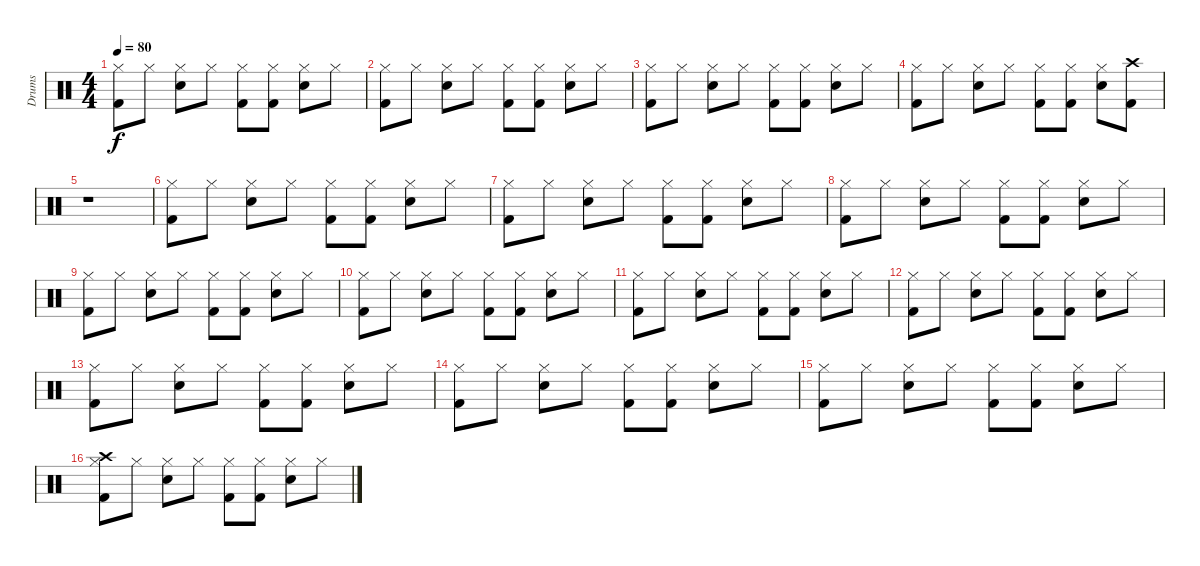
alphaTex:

\track ("Drums" "Drums") {instrument percussion}
\staff {score}
\articulation defaults
\ts (4 4)
\tempo 80
\clef neutral
\ks c
("Hi-Hat (closed)" "Kick (hit) 2").8{dy f} "Hi-Hat (closed)".8 ("Hi-Hat (closed)" "Electric Snare (hit)").8 "Hi-Hat (closed)".8 ("Hi-Hat (closed)" "Kick (hit) 2").8 ("Hi-Hat (closed)" "Kick (hit) 2").8 ("Hi-Hat (closed)" "Electric Snare (hit)").8 "Hi-Hat (closed)".8 |
("Hi-Hat (closed)" "Kick (hit) 2").8 "Hi-Hat (closed)".8 ("Hi-Hat (closed)" "Electric Snare (hit)").8 "Hi-Hat (closed)".8 ("Hi-Hat (closed)" "Kick (hit) 2").8 ("Hi-Hat (closed)" "Kick (hit) 2").8 ("Hi-Hat (closed)" "Electric Snare (hit)").8 "Hi-Hat (closed)".8 |
("Hi-Hat (closed)" "Kick (hit) 2").8 "Hi-Hat (closed)".8 ("Hi-Hat (closed)" "Electric Snare (hit)").8 "Hi-Hat (closed)".8 ("Hi-Hat (closed)" "Kick (hit) 2").8 ("Hi-Hat (closed)" "Kick (hit) 2").8 ("Hi-Hat (closed)" "Electric Snare (hit)").8 "Hi-Hat (closed)".8 |
("Hi-Hat (closed)" "Kick (hit) 2").8 "Hi-Hat (closed)".8 ("Hi-Hat (closed)" "Electric Snare (hit)").8 "Hi-Hat (closed)".8 ("Hi-Hat (closed)" "Kick (hit) 2").8 ("Hi-Hat (closed)" "Kick (hit) 2").8 ("Hi-Hat (closed)" "Electric Snare (hit)").8 ("Crash high (hit)" "Kick (hit) 2").8 |
r.1 |
("Hi-Hat (closed)" "Kick (hit) 2").8 "Hi-Hat (closed)".8 ("Hi-Hat (closed)" "Electric Snare (hit)").8 "Hi-Hat (closed)".8 ("Hi-Hat (closed)" "Kick (hit) 2").8 ("Hi-Hat (closed)" "Kick (hit) 2").8 ("Hi-Hat (closed)" "Electric Snare (hit)").8 "Hi-Hat (closed)".8 |
("Hi-Hat (closed)" "Kick (hit) 2").8 "Hi-Hat (closed)".8 ("Hi-Hat (closed)" "Electric Snare (hit)").8 "Hi-Hat (closed)".8 ("Hi-Hat (closed)" "Kick (hit) 2").8 ("Hi-Hat (closed)" "Kick (hit) 2").8 ("Hi-Hat (closed)" "Electric Snare (hit)").8 "Hi-Hat (closed)".8 |
("Hi-Hat (closed)" "Kick (hit) 2").8 "Hi-Hat (closed)".8 ("Hi-Hat (closed)" "Electric Snare (hit)").8 "Hi-Hat (closed)".8 ("Hi-Hat (closed)" "Kick (hit) 2").8 ("Hi-Hat (closed)" "Kick (hit) 2").8 ("Hi-Hat (closed)" "Electric Snare (hit)").8 "Hi-Hat (closed)".8 |
("Hi-Hat (closed)" "Kick (hit) 2").8 "Hi-Hat (closed)".8 ("Hi-Hat (closed)" "Electric Snare (hit)").8 "Hi-Hat (closed)".8 ("Hi-Hat (closed)" "Kick (hit) 2").8 ("Hi-Hat (closed)" "Kick (hit) 2").8 ("Hi-Hat (closed)" "Electric Snare (hit)").8 "Hi-Hat (closed)".8 |
("Hi-Hat (closed)" "Kick (hit) 2").8 "Hi-Hat (closed)".8 ("Hi-Hat (closed)" "Electric Snare (hit)").8 "Hi-Hat (closed)".8 ("Hi-Hat (closed)" "Kick (hit) 2").8 ("Hi-Hat (closed)" "Kick (hit) 2").8 ("Hi-Hat (closed)" "Electric Snare (hit)").8 "Hi-Hat (closed)".8 |
("Hi-Hat (closed)" "Kick (hit) 2").8 "Hi-Hat (closed)".8 ("Hi-Hat (closed)" "Electric Snare (hit)").8 "Hi-Hat (closed)".8 ("Hi-Hat (closed)" "Kick (hit) 2").8 ("Hi-Hat (closed)" "Kick (hit) 2").8 ("Hi-Hat (closed)" "Electric Snare (hit)").8 "Hi-Hat (closed)".8 |
("Hi-Hat (closed)" "Kick (hit) 2").8 "Hi-Hat (closed)".8 ("Hi-Hat (closed)" "Electric Snare (hit)").8 "Hi-Hat (closed)".8 ("Hi-Hat (closed)" "Kick (hit) 2").8 ("Hi-Hat (closed)" "Kick (hit) 2").8 ("Hi-Hat (closed)" "Electric Snare (hit)").8 "Hi-Hat (closed)".8 |
("Hi-Hat (closed)" "Kick (hit) 2").8 "Hi-Hat (closed)".8 ("Hi-Hat (closed)" "Electric Snare (hit)").8 "Hi-Hat (closed)".8 ("Hi-Hat (closed)" "Kick (hit) 2").8 ("Hi-Hat (closed)" "Kick (hit) 2").8 ("Hi-Hat (closed)" "Electric Snare (hit)").8 "Hi-Hat (closed)".8 |
("Hi-Hat (closed)" "Kick (hit) 2").8 "Hi-Hat (closed)".8 ("Hi-Hat (closed)" "Electric Snare (hit)").8 "Hi-Hat (closed)".8 ("Hi-Hat (closed)" "Kick (hit) 2").8 ("Hi-Hat (closed)" "Kick (hit) 2").8 ("Hi-Hat (closed)" "Electric Snare (hit)").8 "Hi-Hat (closed)".8 |
("Hi-Hat (closed)" "Kick (hit) 2").8 "Hi-Hat (closed)".8 ("Hi-Hat (closed)" "Electric Snare (hit)").8 "Hi-Hat (closed)".8 ("Hi-Hat (closed)" "Kick (hit) 2").8 ("Hi-Hat (closed)" "Kick (hit) 2").8 ("Hi-Hat (closed)" "Electric Snare (hit)").8 "Hi-Hat (closed)".8 |
("Crash high (hit)" "Hi-Hat (closed)" "Kick (hit) 2").8 "Hi-Hat (closed)".8 ("Hi-Hat (closed)" "Electric Snare (hit)").8 "Hi-Hat (closed)".8 ("Hi-Hat (closed)" "Kick (hit) 2").8 ("Hi-Hat (closed)" "Kick (hit) 2").8 ("Hi-Hat (closed)" "Electric Snare (hit)").8 "Hi-Hat (closed)".8
